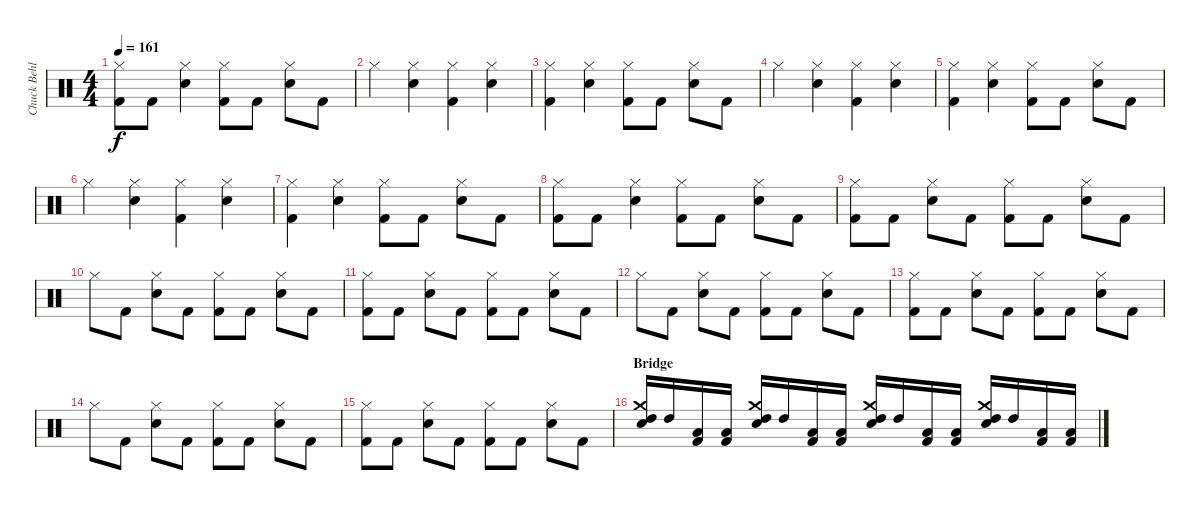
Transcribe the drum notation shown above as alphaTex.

\track ("Chuck Behler" "Chuck Behl") {instrument percussion}
\staff {score}
\articulation defaults
\ts (4 4)
\tempo 161
\clef neutral
\ks c
("Hi-Hat (closed)" "Kick (hit) 2").8{dy f} "Kick (hit) 2".8 ("Hi-Hat (closed)" "Snare (hit) 2").4 ("Hi-Hat (closed)" "Kick (hit) 2").8 "Kick (hit) 2".8 ("Hi-Hat (closed)" "Snare (hit) 2").8 "Kick (hit) 2".8 |
"Hi-Hat (closed)".4 ("Hi-Hat (closed)" "Snare (hit) 2").4 ("Hi-Hat (closed)" "Kick (hit) 2").4 ("Hi-Hat (closed)" "Snare (hit) 2").4 |
("Hi-Hat (closed)" "Kick (hit) 2").4 ("Hi-Hat (closed)" "Snare (hit) 2").4 ("Hi-Hat (closed)" "Kick (hit) 2").8 "Kick (hit) 2".8 ("Hi-Hat (closed)" "Snare (hit) 2").8 "Kick (hit) 2".8 |
"Hi-Hat (closed)".4 ("Hi-Hat (closed)" "Snare (hit) 2").4 ("Hi-Hat (closed)" "Kick (hit) 2").4 ("Hi-Hat (closed)" "Snare (hit) 2").4 |
("Hi-Hat (closed)" "Kick (hit) 2").4 ("Hi-Hat (closed)" "Snare (hit) 2").4 ("Hi-Hat (closed)" "Kick (hit) 2").8 "Kick (hit) 2".8 ("Hi-Hat (closed)" "Snare (hit) 2").8 "Kick (hit) 2".8 |
"Hi-Hat (closed)".4 ("Hi-Hat (closed)" "Snare (hit) 2").4 ("Hi-Hat (closed)" "Kick (hit) 2").4 ("Hi-Hat (closed)" "Snare (hit) 2").4 |
("Hi-Hat (closed)" "Kick (hit) 2").4 ("Hi-Hat (closed)" "Snare (hit) 2").4 ("Hi-Hat (closed)" "Kick (hit) 2").8 "Kick (hit) 2".8 ("Hi-Hat (closed)" "Snare (hit) 2").8 "Kick (hit) 2".8 |
("Hi-Hat (closed)" "Kick (hit) 2").8 "Kick (hit) 2".8 ("Hi-Hat (closed)" "Snare (hit) 2").4 ("Hi-Hat (closed)" "Kick (hit) 2").8 "Kick (hit) 2".8 ("Hi-Hat (closed)" "Snare (hit) 2").8 "Kick (hit) 2".8 |
("Hi-Hat (closed)" "Kick (hit) 2").8 "Kick (hit) 2".8 ("Hi-Hat (closed)" "Snare (hit) 2").8 "Kick (hit) 2".8 ("Hi-Hat (closed)" "Kick (hit) 2").8 "Kick (hit) 2".8 ("Hi-Hat (closed)" "Snare (hit) 2").8 "Kick (hit) 2".8 |
"Hi-Hat (closed)".8 "Kick (hit) 2".8 ("Hi-Hat (closed)" "Snare (hit) 2").8 "Kick (hit) 2".8 ("Hi-Hat (closed)" "Kick (hit) 2").8 "Kick (hit) 2".8 ("Hi-Hat (closed)" "Snare (hit) 2").8 "Kick (hit) 2".8 |
("Hi-Hat (closed)" "Kick (hit) 2").8 "Kick (hit) 2".8 ("Hi-Hat (closed)" "Snare (hit) 2").8 "Kick (hit) 2".8 ("Hi-Hat (closed)" "Kick (hit) 2").8 "Kick (hit) 2".8 ("Hi-Hat (closed)" "Snare (hit) 2").8 "Kick (hit) 2".8 |
"Hi-Hat (closed)".8 "Kick (hit) 2".8 ("Hi-Hat (closed)" "Snare (hit) 2").8 "Kick (hit) 2".8 ("Hi-Hat (closed)" "Kick (hit) 2").8 "Kick (hit) 2".8 ("Hi-Hat (closed)" "Snare (hit) 2").8 "Kick (hit) 2".8 |
("Hi-Hat (closed)" "Kick (hit) 2").8 "Kick (hit) 2".8 ("Hi-Hat (closed)" "Snare (hit) 2").8 "Kick (hit) 2".8 ("Hi-Hat (closed)" "Kick (hit) 2").8 "Kick (hit) 2".8 ("Hi-Hat (closed)" "Snare (hit) 2").8 "Kick (hit) 2".8 |
"Hi-Hat (closed)".8 "Kick (hit) 2".8 ("Hi-Hat (closed)" "Snare (hit) 2").8 "Kick (hit) 2".8 ("Hi-Hat (closed)" "Kick (hit) 2").8 "Kick (hit) 2".8 ("Hi-Hat (closed)" "Snare (hit) 2").8 "Kick (hit) 2".8 |
("Hi-Hat (closed)" "Kick (hit) 2").8 "Kick (hit) 2".8 ("Hi-Hat (closed)" "Snare (hit) 2").8 "Kick (hit) 2".8 ("Hi-Hat (closed)" "Kick (hit) 2").8 "Kick (hit) 2".8 ("Hi-Hat (closed)" "Snare (hit) 2").8 "Kick (hit) 2".8 |
\section ("" "Bridge")
("Crash medium (hit)" "High Tom (hit)" "Snare (hit) 2").16 "High Tom (hit)".16 ("Low Tom (hit)" "Kick (hit) 2").16 ("Low Tom (hit)" "Kick (hit) 2").16 ("Crash medium (hit)" "High Tom (hit)" "Snare (hit) 2").16 "High Tom (hit)".16 ("Low Tom (hit)" "Kick (hit) 2").16 ("Low Tom (hit)" "Kick (hit) 2").16 ("Crash medium (hit)" "High Tom (hit)" "Snare (hit) 2").16 "High Tom (hit)".16 ("Low Tom (hit)" "Kick (hit) 2").16 ("Low Tom (hit)" "Kick (hit) 2").16 ("Crash medium (hit)" "High Tom (hit)" "Snare (hit) 2").16 "High Tom (hit)".16 ("Low Tom (hit)" "Kick (hit) 2").16 ("Low Tom (hit)" "Kick (hit) 2").16
